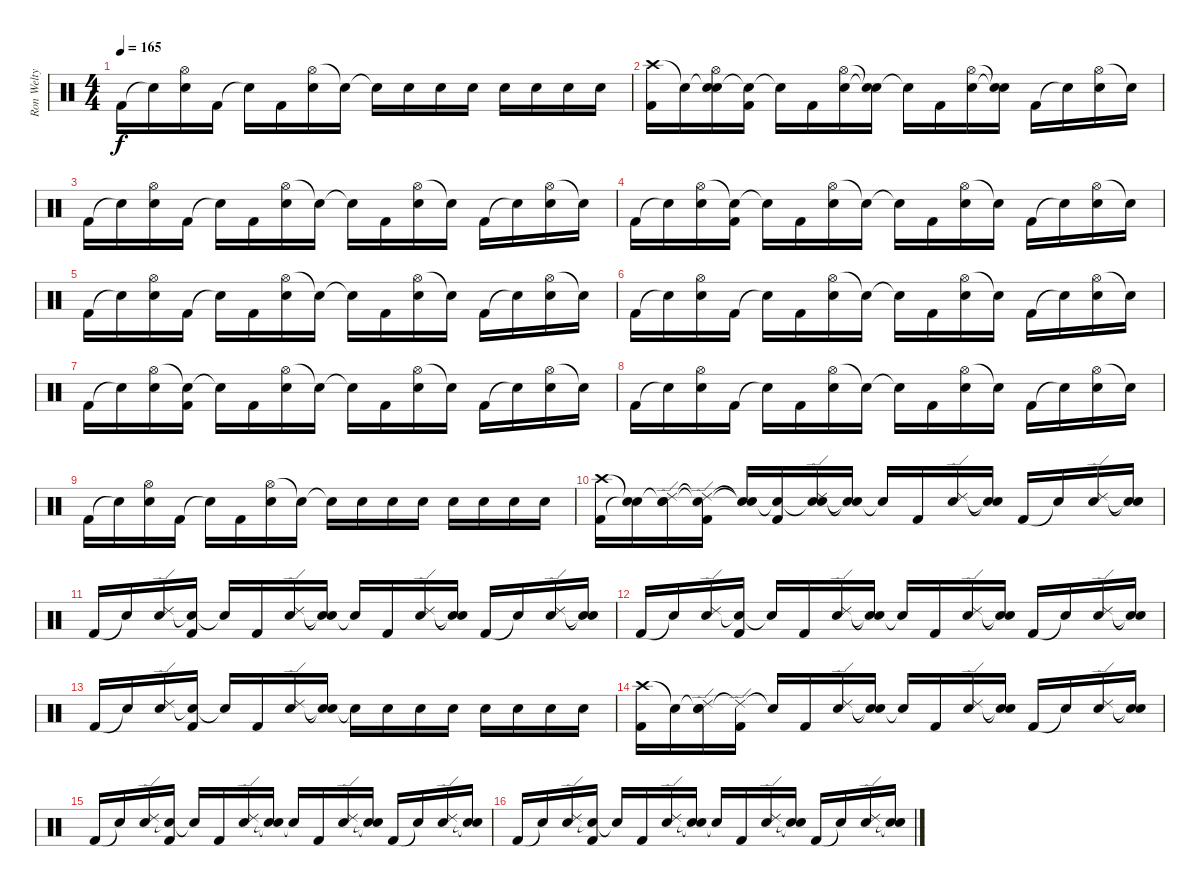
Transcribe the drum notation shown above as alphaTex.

\track ("Ron Welty" "Ron Welty") {instrument percussion}
\staff {score}
\articulation defaults
\ts (4 4)
\tempo 165
\clef neutral
\ks c "Kick (hit) 2".16{dy f} "Snare (hit)"{t}.16
("Hi-Hat (open)" "Electric Snare (hit)").16 "Kick (hit) 2".16 "Snare (hit)"{t}.16 "Kick (hit) 2".16 ("Hi-Hat (open)" "Electric Snare (hit)").16 "Snare (hit)"{t}.16 "Snare (hit)"{t}.16 "Snare (hit) 2".16 "Snare (hit) 2".16 "Snare (hit) 2".16 "Electric Snare (hit)".16 "Electric Snare (hit)".16 "Snare (hit) 2".16 "Snare (hit) 2".16 |
("Crash high (hit)" "Kick (hit) 2").16 "Snare (hit)"{t}.16 ("Snare (hit)"{t} "Hi-Hat (open)" "Electric Snare (hit)").16 ("Snare (hit)"{t} "Kick (hit) 2").16 "Snare (hit)"{t}.16 "Kick (hit) 2".16 ("Hi-Hat (open)" "Electric Snare (hit)").16 ("Snare (hit)"{t} "Snare (hit)"{t}).16 "Snare (hit)"{t}.16 "Kick (hit) 2".16 ("Hi-Hat (open)" "Electric Snare (hit)").16 ("Snare (hit)"{t} "Snare (hit)"{t}).16 "Kick (hit) 2".16 "Snare (hit)"{t}.16 ("Hi-Hat (open)" "Electric Snare (hit)").16 "Snare (hit)"{t}.16 |
"Kick (hit) 2".16 "Snare (hit)"{t}.16 ("Hi-Hat (open)" "Electric Snare (hit)").16 "Kick (hit) 2".16 "Snare (hit)"{t}.16 "Kick (hit) 2".16 ("Hi-Hat (open)" "Electric Snare (hit)").16 "Snare (hit)"{t}.16 "Snare (hit)"{t}.16 "Kick (hit) 2".16 ("Hi-Hat (open)" "Electric Snare (hit)").16 "Snare (hit)"{t}.16 "Kick (hit) 2".16 "Snare (hit)"{t}.16 ("Hi-Hat (open)" "Electric Snare (hit)").16 "Snare (hit)"{t}.16 |
"Kick (hit) 2".16 "Snare (hit)"{t}.16 ("Hi-Hat (open)" "Electric Snare (hit)").16 ("Snare (hit)"{t} "Kick (hit) 2").16 "Snare (hit)"{t}.16 "Kick (hit) 2".16 ("Hi-Hat (open)" "Electric Snare (hit)").16 "Snare (hit)"{t}.16 "Snare (hit)"{t}.16 "Kick (hit) 2".16 ("Hi-Hat (open)" "Electric Snare (hit)").16 "Snare (hit)"{t}.16 "Kick (hit) 2".16 "Snare (hit)"{t}.16 ("Hi-Hat (open)" "Electric Snare (hit)").16 "Snare (hit)"{t}.16 |
"Kick (hit) 2".16 "Snare (hit)"{t}.16 ("Hi-Hat (open)" "Electric Snare (hit)").16 "Kick (hit) 2".16 "Snare (hit)"{t}.16 "Kick (hit) 2".16 ("Hi-Hat (open)" "Electric Snare (hit)").16 "Snare (hit)"{t}.16 "Snare (hit)"{t}.16 "Kick (hit) 2".16 ("Hi-Hat (open)" "Electric Snare (hit)").16 "Snare (hit)"{t}.16 "Kick (hit) 2".16 "Snare (hit)"{t}.16 ("Hi-Hat (open)" "Electric Snare (hit)").16 "Snare (hit)"{t}.16 |
"Kick (hit) 2".16 "Snare (hit)"{t}.16 ("Hi-Hat (open)" "Electric Snare (hit)").16 "Kick (hit) 2".16 "Snare (hit)"{t}.16 "Kick (hit) 2".16 ("Hi-Hat (open)" "Electric Snare (hit)").16 "Snare (hit)"{t}.16 "Snare (hit)"{t}.16 "Kick (hit) 2".16 ("Hi-Hat (open)" "Electric Snare (hit)").16 "Snare (hit)"{t}.16 "Kick (hit) 2".16 "Snare (hit)"{t}.16 ("Hi-Hat (open)" "Electric Snare (hit)").16 "Snare (hit)"{t}.16 |
"Kick (hit) 2".16 "Snare (hit)"{t}.16 ("Hi-Hat (open)" "Electric Snare (hit)").16 ("Snare (hit)"{t} "Kick (hit) 2").16 "Snare (hit)"{t}.16 "Kick (hit) 2".16 ("Hi-Hat (open)" "Electric Snare (hit)").16 "Snare (hit)"{t}.16 "Snare (hit)"{t}.16 "Kick (hit) 2".16 ("Hi-Hat (open)" "Electric Snare (hit)").16 "Snare (hit)"{t}.16 "Kick (hit) 2".16 "Snare (hit)"{t}.16 ("Hi-Hat (open)" "Electric Snare (hit)").16 "Snare (hit)"{t}.16 |
"Kick (hit) 2".16 "Snare (hit)"{t}.16 ("Hi-Hat (open)" "Electric Snare (hit)").16 "Kick (hit) 2".16 "Snare (hit)"{t}.16 "Kick (hit) 2".16 ("Hi-Hat (open)" "Electric Snare (hit)").16 "Snare (hit)"{t}.16 "Snare (hit)"{t}.16 "Kick (hit) 2".16 ("Hi-Hat (open)" "Electric Snare (hit)").16 "Snare (hit)"{t}.16 "Kick (hit) 2".16 "Snare (hit)"{t}.16 ("Hi-Hat (open)" "Electric Snare (hit)").16 "Snare (hit)"{t}.16 |
"Kick (hit) 2".16 "Snare (hit)"{t}.16 ("Hi-Hat (open)" "Electric Snare (hit)").16 "Kick (hit) 2".16 "Snare (hit)"{t}.16 "Kick (hit) 2".16 ("Hi-Hat (open)" "Electric Snare (hit)").16 "Snare (hit)"{t}.16 "Snare (hit)"{t}.16 "Snare (hit) 2".16 "Snare (hit) 2".16 "Snare (hit) 2".16 "Electric Snare (hit)".16 "Electric Snare (hit)".16 "Snare (hit) 2".16 "Snare (hit) 2".16 |
("Crash high (hit)" "Kick (hit) 2").16 ("Snare (hit)"{t} "Snare (hit)"{t}).16 ("Snare (hit)"{t} "Ride (edge) 2" "Electric Snare (hit)").16 ("Snare (hit)"{t} "Ride (edge) 2"{t} "Kick (hit) 2").16 ("Snare (hit)"{t} "Snare (hit)"{t}).16 ("Snare (hit)"{t} "Kick (hit) 2").16 ("Snare (hit)"{t} "Ride (edge) 2" "Electric Snare (hit)").16 ("Snare (hit)"{t} "Snare (hit)"{t}).16 "Snare (hit)"{t}.16 "Kick (hit) 2".16 ("Ride (edge) 2" "Electric Snare (hit)").16 ("Snare (hit)"{t} "Snare (hit)"{t}).16 "Kick (hit) 2".16 "Snare (hit)"{t}.16 ("Ride (edge) 2" "Electric Snare (hit)").16 ("Snare (hit)"{t} "Snare (hit)"{t}).16 |
"Kick (hit) 2".16 "Snare (hit)"{t}.16 ("Ride (edge) 2" "Electric Snare (hit)").16 ("Snare (hit)"{t} "Kick (hit) 2").16 "Snare (hit)"{t}.16 "Kick (hit) 2".16 ("Ride (edge) 2" "Electric Snare (hit)").16 ("Snare (hit)"{t} "Snare (hit)"{t}).16 "Snare (hit)"{t}.16 "Kick (hit) 2".16 ("Ride (edge) 2" "Electric Snare (hit)").16 ("Snare (hit)"{t} "Snare (hit)"{t}).16 "Kick (hit) 2".16 "Snare (hit)"{t}.16 ("Ride (edge) 2" "Electric Snare (hit)").16 ("Snare (hit)"{t} "Snare (hit)"{t}).16 |
"Kick (hit) 2".16 "Snare (hit)"{t}.16 ("Ride (edge) 2" "Electric Snare (hit)").16 ("Snare (hit)"{t} "Kick (hit) 2").16 "Snare (hit)"{t}.16 "Kick (hit) 2".16 ("Ride (edge) 2" "Electric Snare (hit)").16 ("Snare (hit)"{t} "Snare (hit)"{t}).16 "Snare (hit)"{t}.16 "Kick (hit) 2".16 ("Ride (edge) 2" "Electric Snare (hit)").16 ("Snare (hit)"{t} "Snare (hit)"{t}).16 "Kick (hit) 2".16 "Snare (hit)"{t}.16 ("Ride (edge) 2" "Electric Snare (hit)").16 ("Snare (hit)"{t} "Snare (hit)"{t}).16 |
"Kick (hit) 2".16 "Snare (hit)"{t}.16 ("Ride (edge) 2" "Electric Snare (hit)").16 ("Snare (hit)"{t} "Kick (hit) 2").16 "Snare (hit)"{t}.16 "Kick (hit) 2".16 ("Ride (edge) 2" "Electric Snare (hit)").16 ("Snare (hit)"{t} "Snare (hit)"{t}).16 "Snare (hit)"{t}.16 "Electric Snare (hit)".16 "Electric Snare (hit)".16 "Electric Snare (hit)".16 "Snare (hit) 2".16 "Snare (hit) 2".16 "Snare (hit) 2".16 "Snare (hit) 2".16 |
("Crash high (hit)" "Kick (hit) 2").16 "Snare (hit)"{t}.16 ("Snare (hit)"{t} "Ride (edge) 2" "Electric Snare (hit)").16 ("Ride (edge) 2"{t} "Kick (hit) 2").16 "Snare (hit)"{t}.16 "Kick (hit) 2".16 ("Ride (edge) 2" "Electric Snare (hit)").16 ("Snare (hit)"{t} "Snare (hit)"{t}).16 "Snare (hit)"{t}.16 "Kick (hit) 2".16 ("Ride (edge) 2" "Electric Snare (hit)").16 ("Snare (hit)"{t} "Snare (hit)"{t}).16 "Kick (hit) 2".16 "Snare (hit)"{t}.16 ("Ride (edge) 2" "Electric Snare (hit)").16 ("Snare (hit)"{t} "Snare (hit)"{t}).16 |
"Kick (hit) 2".16 "Snare (hit)"{t}.16 ("Ride (edge) 2" "Electric Snare (hit)").16 ("Snare (hit)"{t} "Kick (hit) 2").16 "Snare (hit)"{t}.16 "Kick (hit) 2".16 ("Ride (edge) 2" "Electric Snare (hit)").16 ("Snare (hit)"{t} "Snare (hit)"{t}).16 "Snare (hit)"{t}.16 "Kick (hit) 2".16 ("Ride (edge) 2" "Electric Snare (hit)").16 ("Snare (hit)"{t} "Snare (hit)"{t}).16 "Kick (hit) 2".16 "Snare (hit)"{t}.16 ("Ride (edge) 2" "Electric Snare (hit)").16 ("Snare (hit)"{t} "Snare (hit)"{t}).16 |
"Kick (hit) 2".16 "Snare (hit)"{t}.16 ("Ride (edge) 2" "Electric Snare (hit)").16 ("Snare (hit)"{t} "Kick (hit) 2").16 "Snare (hit)"{t}.16 "Kick (hit) 2".16 ("Ride (edge) 2" "Electric Snare (hit)").16 ("Snare (hit)"{t} "Snare (hit)"{t}).16 "Snare (hit)"{t}.16 "Kick (hit) 2".16 ("Ride (edge) 2" "Electric Snare (hit)").16 ("Snare (hit)"{t} "Snare (hit)"{t}).16 "Kick (hit) 2".16 "Snare (hit)"{t}.16 ("Ride (edge) 2" "Electric Snare (hit)").16 ("Snare (hit)"{t} "Snare (hit)"{t}).16
